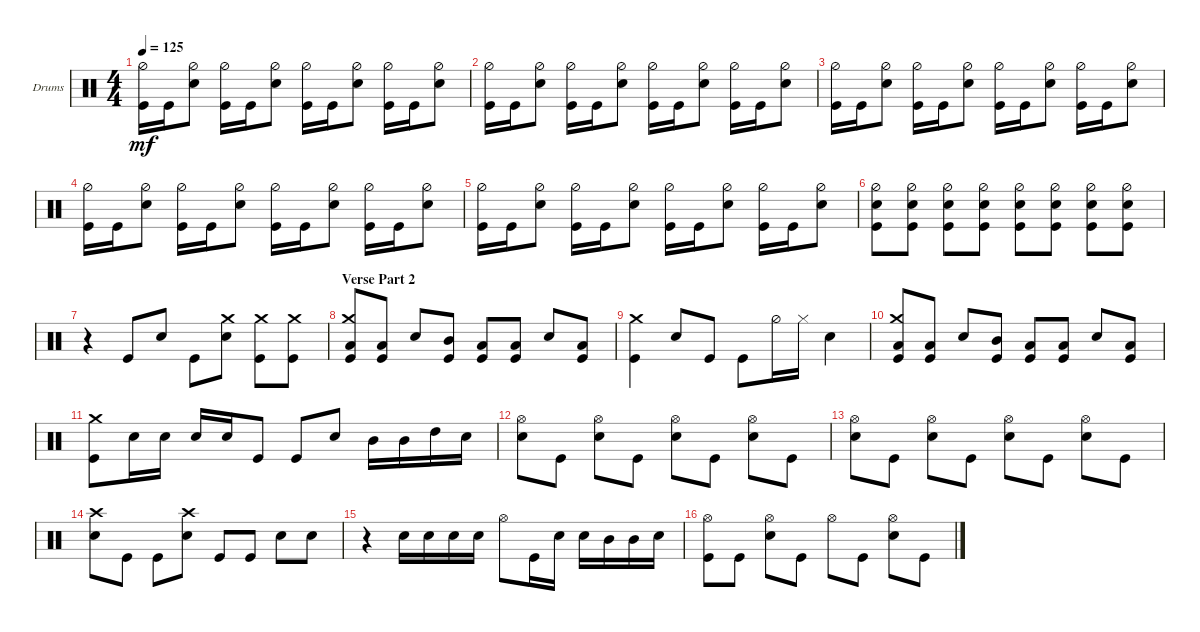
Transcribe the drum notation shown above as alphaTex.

\defaultSystemsLayout 4
\bracketExtendMode groupsimilarinstruments
\firstSystemTrackNameOrientation horizontal
\otherSystemsTrackNameOrientation horizontal
\track ("Drumkit" "Drums") {instrument percussion}
\staff {score}
\articulation defaults
\ts (4 4)
\tempo 125
\clef neutral
\ks c
("Hi-Hat (half)" "Kick (hit)").16{dy mf} "Kick (hit)".16 ("Hi-Hat (half)" "Snare (hit) 2").8 ("Hi-Hat (half)" "Kick (hit)").16 "Kick (hit)".16 ("Hi-Hat (half)" "Snare (hit) 2").8 ("Hi-Hat (half)" "Kick (hit)").16 "Kick (hit)".16 ("Hi-Hat (half)" "Snare (hit) 2").8 ("Hi-Hat (half)" "Kick (hit)").16 "Kick (hit)".16 ("Hi-Hat (half)" "Snare (hit) 2").8 |
("Hi-Hat (half)" "Kick (hit)").16 "Kick (hit)".16 ("Hi-Hat (half)" "Snare (hit) 2").8 ("Hi-Hat (half)" "Kick (hit)").16 "Kick (hit)".16 ("Hi-Hat (half)" "Snare (hit) 2").8 ("Hi-Hat (half)" "Kick (hit)").16 "Kick (hit)".16 ("Hi-Hat (half)" "Snare (hit) 2").8 ("Hi-Hat (half)" "Kick (hit)").16 "Kick (hit)".16 ("Hi-Hat (half)" "Snare (hit) 2").8 |
("Hi-Hat (half)" "Kick (hit)").16 "Kick (hit)".16 ("Hi-Hat (half)" "Snare (hit) 2").8 ("Hi-Hat (half)" "Kick (hit)").16 "Kick (hit)".16 ("Hi-Hat (half)" "Snare (hit) 2").8 ("Hi-Hat (half)" "Kick (hit)").16 "Kick (hit)".16 ("Hi-Hat (half)" "Snare (hit) 2").8 ("Hi-Hat (half)" "Kick (hit)").16 "Kick (hit)".16 ("Hi-Hat (half)" "Snare (hit) 2").8 |
("Hi-Hat (half)" "Kick (hit)").16 "Kick (hit)".16 ("Hi-Hat (half)" "Snare (hit) 2").8 ("Hi-Hat (half)" "Kick (hit)").16 "Kick (hit)".16 ("Hi-Hat (half)" "Snare (hit) 2").8 ("Hi-Hat (half)" "Kick (hit)").16 "Kick (hit)".16 ("Hi-Hat (half)" "Snare (hit) 2").8 ("Hi-Hat (half)" "Kick (hit)").16 "Kick (hit)".16 ("Hi-Hat (half)" "Snare (hit) 2").8 |
("Hi-Hat (half)" "Kick (hit)").16 "Kick (hit)".16 ("Hi-Hat (half)" "Snare (hit) 2").8 ("Hi-Hat (half)" "Kick (hit)").16 "Kick (hit)".16 ("Hi-Hat (half)" "Snare (hit) 2").8 ("Hi-Hat (half)" "Kick (hit)").16 "Kick (hit)".16 ("Hi-Hat (half)" "Snare (hit) 2").8 ("Hi-Hat (half)" "Kick (hit)").16 "Kick (hit)".16 ("Hi-Hat (half)" "Snare (hit) 2").8 |
("Kick (hit)" "Snare (hit) 2" "Hi-Hat (half)").8 ("Kick (hit)" "Snare (hit) 2" "Hi-Hat (half)").8 ("Kick (hit)" "Snare (hit) 2" "Hi-Hat (half)").8 ("Kick (hit)" "Snare (hit) 2" "Hi-Hat (half)").8 ("Kick (hit)" "Snare (hit) 2" "Hi-Hat (half)").8 ("Kick (hit)" "Snare (hit) 2" "Hi-Hat (half)").8 ("Kick (hit)" "Snare (hit) 2" "Hi-Hat (half)").8 ("Kick (hit)" "Snare (hit) 2" "Hi-Hat (half)").8 |
r.4 "Kick (hit)".8 "Snare (hit) 2".8 "Kick (hit)".8 ("Snare (hit) 2" "Crash medium (hit)").8 ("Kick (hit)" "Crash medium (hit)").8 ("Kick (hit)" "Crash medium (hit)").8 |
\section ("" "Verse Part 2")
("Kick (hit)" "Crash medium (hit)" "Low Tom (hit)").8 ("Kick (hit)" "Low Tom (hit)").8 "Snare (hit) 2".8 ("Kick (hit)" "Mid Tom (hit)").8 ("Kick (hit)" "Low Tom (hit)").8 ("Kick (hit)" "Low Tom (hit)").8 "Snare (hit) 2".8 ("Kick (hit)" "Low Tom (hit)").8 |
("Kick (hit)" "Crash medium (hit)").4 "Snare (hit) 2".8 "Kick (hit)".8 "Kick (hit)".8 "Hi-Hat (half)".16 "Hi-Hat (closed)".16 "Snare (hit) 2".4 |
("Kick (hit)" "Crash medium (hit)" "Low Tom (hit)").8 ("Kick (hit)" "Low Tom (hit)").8 "Snare (hit) 2".8 ("Kick (hit)" "Mid Tom (hit)").8 ("Kick (hit)" "Low Tom (hit)").8 ("Kick (hit)" "Low Tom (hit)").8 "Snare (hit) 2".8 ("Kick (hit)" "Low Tom (hit)").8 |
("Kick (hit)" "Crash medium (hit)").8 "Snare (hit) 2".16 "Snare (hit) 2".16 "Snare (hit) 2".16 "Snare (hit) 2".16 "Kick (hit)".8 "Kick (hit)".8 "Snare (hit) 2".8 "Mid Tom (hit)".16 "Mid Tom (hit)".16 "High Tom (hit)".16 "Snare (hit) 2".16 |
("Snare (hit) 2" "Hi-Hat (open)").8 "Kick (hit)".8 ("Snare (hit) 2" "Hi-Hat (open)").8 "Kick (hit)".8 ("Snare (hit) 2" "Hi-Hat (open)").8 "Kick (hit)".8 ("Snare (hit) 2" "Hi-Hat (open)").8 "Kick (hit)".8 |
("Snare (hit) 2" "Hi-Hat (open)").8 "Kick (hit)".8 ("Snare (hit) 2" "Hi-Hat (open)").8 "Kick (hit)".8 ("Snare (hit) 2" "Hi-Hat (open)").8 "Kick (hit)".8 ("Snare (hit) 2" "Hi-Hat (open)").8 "Kick (hit)".8 |
("Snare (hit) 2" "Crash high (hit)").8 "Kick (hit)".8 "Kick (hit)".8 ("Snare (hit) 2" "Crash high (hit)").8 "Kick (hit)".8 "Kick (hit)".8 "Snare (hit) 2".8 "Snare (hit) 2".8 |
r.4 "Snare (hit) 2".16 "Snare (hit) 2".16 "Snare (hit) 2".16 "Snare (hit) 2".16 "Hi-Hat (open)".8 "Kick (hit)".16 "Snare (hit) 2".16 "Snare (hit) 2".16 "Mid Tom (hit)".16 "Mid Tom (hit)".16 "Snare (hit) 2".16 |
("Kick (hit)" "Hi-Hat (open)").8 "Kick (hit)".8 ("Snare (hit) 2" "Hi-Hat (open)").8 "Kick (hit)".8 "Hi-Hat (open)".8 "Kick (hit)".8 ("Snare (hit) 2" "Hi-Hat (open)").8 "Kick (hit)".8
